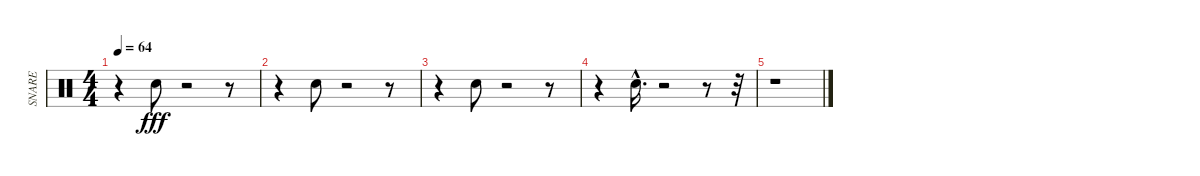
\track ("SNARE" "SNARE") {instrument percussion}
\staff {score}
\articulation defaults
\ts (4 4)
\tempo 64
\clef neutral
\ks c
r.4{dy fff} "Snare (hit) 2".8 r.2 r.8 |
r.4 "Snare (hit) 2".8 r.2 r.8 |
r.4 "Snare (hit) 2".8 r.2 r.8 |
r.4 "Snare (hit) 2"{hac}.16{d} r.2 r.8 r.32 |
r.1
